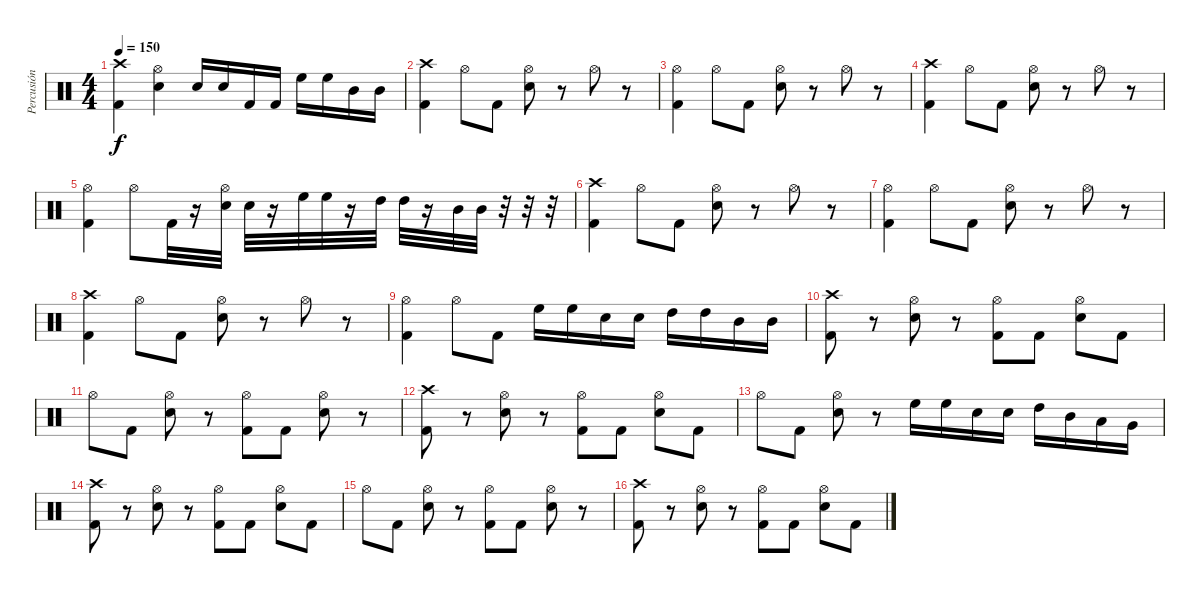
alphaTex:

\track ("Percusión" "Percusión") {instrument percussion}
\staff {score}
\articulation defaults
\ts (4 4)
\tempo 150
\clef neutral
\ks c
("Crash high (hit)" "Kick (hit) 2").4{dy f} ("Hi-Hat (open)" "Electric Snare (hit)").4 "Electric Snare (hit)".16 "Electric Snare (hit)".16 "Kick (hit) 2".16 "Kick (hit) 2".16 "High Floor Tom (hit)".16 "High Floor Tom (hit)".16 "Mid Tom (hit)".16 "Mid Tom (hit)".16 |
("Crash high (hit)" "Kick (hit) 2").4 "Hi-Hat (open)".8 "Kick (hit) 2".8 ("Hi-Hat (open)" "Electric Snare (hit)").8 r.8 "Hi-Hat (open)".8 r.8 |
("Hi-Hat (open)" "Kick (hit) 2").4 "Hi-Hat (open)".8 "Kick (hit) 2".8 ("Hi-Hat (open)" "Electric Snare (hit)").8 r.8 "Hi-Hat (open)".8 r.8 |
("Crash high (hit)" "Kick (hit) 2").4 "Hi-Hat (open)".8 "Kick (hit) 2".8 ("Hi-Hat (open)" "Electric Snare (hit)").8 r.8 "Hi-Hat (open)".8 r.8 |
("Hi-Hat (open)" "Kick (hit) 2").4 "Hi-Hat (open)".8 "Kick (hit) 2".32 r.16 ("Hi-Hat (open)" "Electric Snare (hit)").32 "Electric Snare (hit)".32 r.16 "High Floor Tom (hit)".32 "High Floor Tom (hit)".32 r.16 "High Tom (hit)".32 "High Tom (hit)".32 r.16 "Mid Tom (hit)".32 "Mid Tom (hit)".32 r.32 r.32 r.32 |
("Crash high (hit)" "Kick (hit) 2").4 "Hi-Hat (open)".8 "Kick (hit) 2".8 ("Hi-Hat (open)" "Electric Snare (hit)").8 r.8 "Hi-Hat (open)".8 r.8 |
("Hi-Hat (open)" "Kick (hit) 2").4 "Hi-Hat (open)".8 "Kick (hit) 2".8 ("Hi-Hat (open)" "Electric Snare (hit)").8 r.8 "Hi-Hat (open)".8 r.8 |
("Crash high (hit)" "Kick (hit) 2").4 "Hi-Hat (open)".8 "Kick (hit) 2".8 ("Hi-Hat (open)" "Electric Snare (hit)").8 r.8 "Hi-Hat (open)".8 r.8 |
("Hi-Hat (open)" "Kick (hit) 2").4 "Hi-Hat (open)".8 "Kick (hit) 2".8 "High Floor Tom (hit)".16 "High Floor Tom (hit)".16 "Electric Snare (hit)".16 "Electric Snare (hit)".16 "High Tom (hit)".16 "High Tom (hit)".16 "Mid Tom (hit)".16 "Mid Tom (hit)".16 |
("Crash high (hit)" "Kick (hit) 2").8 r.8 ("Hi-Hat (open)" "Electric Snare (hit)").8 r.8 ("Hi-Hat (open)" "Kick (hit) 2").8 "Kick (hit) 2".8 ("Hi-Hat (open)" "Electric Snare (hit)").8 "Kick (hit) 2".8 |
"Hi-Hat (open)".8 "Kick (hit) 2".8 ("Hi-Hat (open)" "Electric Snare (hit)").8 r.8 ("Hi-Hat (open)" "Kick (hit) 2").8 "Kick (hit) 2".8 ("Hi-Hat (open)" "Electric Snare (hit)").8 r.8 |
("Crash high (hit)" "Kick (hit) 2").8 r.8 ("Hi-Hat (open)" "Electric Snare (hit)").8 r.8 ("Hi-Hat (open)" "Kick (hit) 2").8 "Kick (hit) 2".8 ("Hi-Hat (open)" "Electric Snare (hit)").8 "Kick (hit) 2".8 |
"Hi-Hat (open)".8 "Kick (hit) 2".8 ("Hi-Hat (open)" "Electric Snare (hit)").8 r.8 "High Floor Tom (hit)".16 "High Floor Tom (hit)".16 "Electric Snare (hit)".16 "Electric Snare (hit)".16 "High Tom (hit)".16 "Mid Tom (hit)".16 "Low Tom (hit)".16 "Very Low Tom (hit)".16 |
("Crash high (hit)" "Kick (hit) 2").8 r.8 ("Hi-Hat (open)" "Electric Snare (hit)").8 r.8 ("Hi-Hat (open)" "Kick (hit) 2").8 "Kick (hit) 2".8 ("Hi-Hat (open)" "Electric Snare (hit)").8 "Kick (hit) 2".8 |
"Hi-Hat (open)".8 "Kick (hit) 2".8 ("Hi-Hat (open)" "Electric Snare (hit)").8 r.8 ("Hi-Hat (open)" "Kick (hit) 2").8 "Kick (hit) 2".8 ("Hi-Hat (open)" "Electric Snare (hit)").8 r.8 |
("Crash high (hit)" "Kick (hit) 2").8 r.8 ("Hi-Hat (open)" "Electric Snare (hit)").8 r.8 ("Hi-Hat (open)" "Kick (hit) 2").8 "Kick (hit) 2".8 ("Hi-Hat (open)" "Electric Snare (hit)").8 "Kick (hit) 2".8
